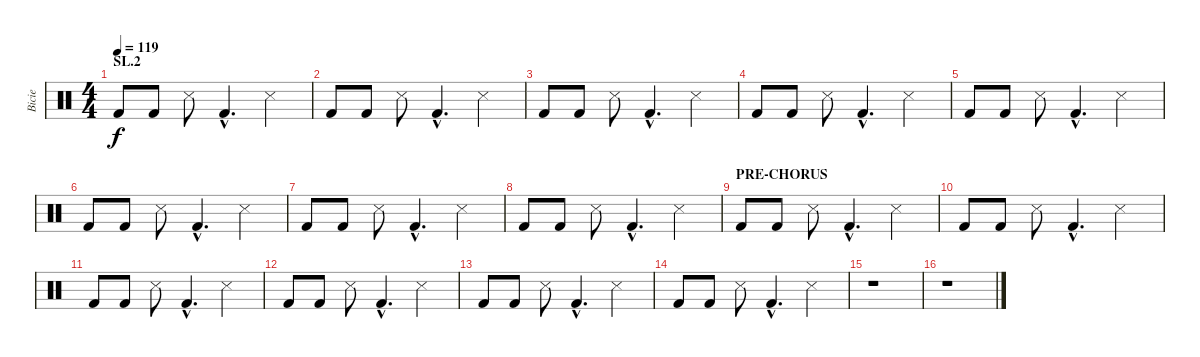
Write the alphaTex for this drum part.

\track ("Bicie" "Bicie") {instrument percussion}
\staff {score}
\articulation defaults
\ts (4 4)
\section ("" "SL.2")
\tempo 119
\clef neutral
\ks c "Kick (hit) 2".8{dy f} "Kick (hit) 2".8 "Metronome (hit)".8 "Kick (hit) 2"{hac}.4{d} "Metronome (hit)".4
|
"Kick (hit) 2".8 "Kick (hit) 2".8 "Metronome (hit)".8 "Kick (hit) 2"{hac}.4{d} "Metronome (hit)".4 |
"Kick (hit) 2".8 "Kick (hit) 2".8 "Metronome (hit)".8 "Kick (hit) 2"{hac}.4{d} "Metronome (hit)".4 |
"Kick (hit) 2".8 "Kick (hit) 2".8 "Metronome (hit)".8 "Kick (hit) 2"{hac}.4{d} "Metronome (hit)".4 |
"Kick (hit) 2".8 "Kick (hit) 2".8 "Metronome (hit)".8 "Kick (hit) 2"{hac}.4{d} "Metronome (hit)".4 |
"Kick (hit) 2".8 "Kick (hit) 2".8 "Metronome (hit)".8 "Kick (hit) 2"{hac}.4{d} "Metronome (hit)".4 |
"Kick (hit) 2".8 "Kick (hit) 2".8 "Metronome (hit)".8 "Kick (hit) 2"{hac}.4{d} "Metronome (hit)".4 |
"Kick (hit) 2".8 "Kick (hit) 2".8 "Metronome (hit)".8 "Kick (hit) 2"{hac}.4{d} "Metronome (hit)".4 |
\section ("" "PRE-CHORUS")
"Kick (hit) 2".8 "Kick (hit) 2".8 "Metronome (hit)".8 "Kick (hit) 2"{hac}.4{d} "Metronome (hit)".4 |
"Kick (hit) 2".8 "Kick (hit) 2".8 "Metronome (hit)".8 "Kick (hit) 2"{hac}.4{d} "Metronome (hit)".4 |
"Kick (hit) 2".8 "Kick (hit) 2".8 "Metronome (hit)".8 "Kick (hit) 2"{hac}.4{d} "Metronome (hit)".4 |
"Kick (hit) 2".8 "Kick (hit) 2".8 "Metronome (hit)".8 "Kick (hit) 2"{hac}.4{d} "Metronome (hit)".4 |
"Kick (hit) 2".8 "Kick (hit) 2".8 "Metronome (hit)".8 "Kick (hit) 2"{hac}.4{d} "Metronome (hit)".4 |
"Kick (hit) 2".8 "Kick (hit) 2".8 "Metronome (hit)".8 "Kick (hit) 2"{hac}.4{d} "Metronome (hit)".4 |
r.1 |
r.1
